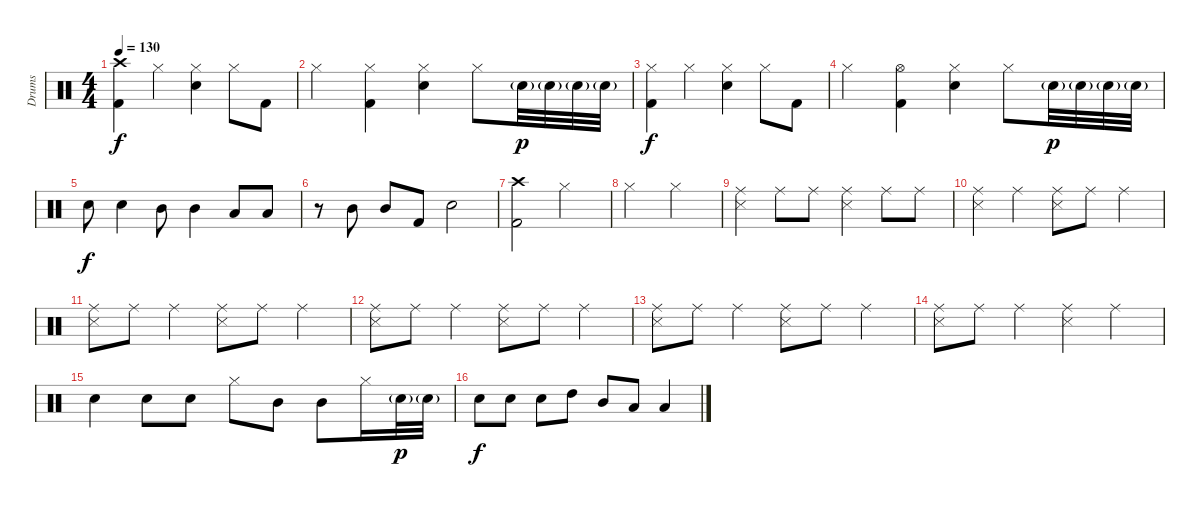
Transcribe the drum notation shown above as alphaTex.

\track ("Drums" "Drums") {instrument percussion}
\staff {score}
\articulation defaults
\ts (4 4)
\tempo 130
\clef neutral
\ks c
("Crash high (hit)" "Kick (hit) 2").4{dy f} "Hi-Hat (closed)".4 ("Hi-Hat (closed)" "Electric Snare (hit)").4 "Hi-Hat (closed)".8 "Kick (hit) 2".8 |
"Hi-Hat (closed)".4 ("Hi-Hat (closed)" "Kick (hit) 2").4 ("Hi-Hat (closed)" "Electric Snare (hit)").4 "Hi-Hat (closed)".8 "Electric Snare (hit)"{g}.32{dy p} "Electric Snare (hit)"{g}.32 "Electric Snare (hit)"{g}.32 "Electric Snare (hit)"{g}.32 |
("Hi-Hat (closed)" "Kick (hit) 2").4{dy f} "Hi-Hat (closed)".4 ("Hi-Hat (closed)" "Electric Snare (hit)").4 "Hi-Hat (closed)".8 "Kick (hit) 2".8 |
"Hi-Hat (closed)".4 ("Hi-Hat (open)" "Kick (hit) 2").4 ("Hi-Hat (closed)" "Electric Snare (hit)").4 "Hi-Hat (closed)".8 "Electric Snare (hit)"{g}.32{dy p} "Electric Snare (hit)"{g}.32 "Electric Snare (hit)"{g}.32 "Electric Snare (hit)"{g}.32 |
"Electric Snare (hit)".8{dy f} "Electric Snare (hit)".4 "Mid Tom (hit)".8 "Mid Tom (hit)".4 "Low Tom (hit)".8 "Low Tom (hit)".8 |
r.8 "Mid Tom (hit)".8 "Mid Tom (hit)".8 "Kick (hit) 2".8 "Electric Snare (hit)".2 |
("Crash high (hit)" "Kick (hit) 2").2 "Hi-Hat (closed)".2 |
"Hi-Hat (closed)".2 "Hi-Hat (closed)".2 |
("Ride (middle)" "Snare (side stick) 3").4 "Ride (middle)".8 "Ride (middle)".8 ("Ride (middle)" "Snare (side stick) 3").4 "Ride (middle)".8 "Ride (middle)".8 |
("Ride (middle)" "Snare (side stick) 3").4 "Ride (middle)".4 ("Ride (middle)" "Snare (side stick) 3").8 "Ride (middle)".8 "Ride (middle)".4 |
("Ride (middle)" "Snare (side stick) 3").8 "Ride (middle)".8 "Ride (middle)".4 ("Ride (middle)" "Snare (side stick) 3").8 "Ride (middle)".8 "Ride (middle)".4 |
("Ride (middle)" "Snare (side stick) 3").8 "Ride (middle)".8 "Ride (middle)".4 ("Ride (middle)" "Snare (side stick) 3").8 "Ride (middle)".8 "Ride (middle)".4 |
("Ride (middle)" "Snare (side stick) 3").8 "Ride (middle)".8 "Ride (middle)".4 ("Ride (middle)" "Snare (side stick) 3").8 "Ride (middle)".8 "Ride (middle)".4 |
("Ride (middle)" "Snare (side stick) 3").8 "Ride (middle)".8 "Ride (middle)".4 ("Ride (middle)" "Snare (side stick) 3").4 "Ride (middle)".4 |
"Electric Snare (hit)".4 "Electric Snare (hit)".8 "Electric Snare (hit)".8 "Hi-Hat (closed)".8 "Mid Tom (hit)".8 "Mid Tom (hit)".8 "Hi-Hat (closed)".16 "Electric Snare (hit)"{g}.32{dy p} "Electric Snare (hit)"{g}.32 |
"Electric Snare (hit)".8{dy f} "Electric Snare (hit)".8 "Electric Snare (hit)".8 "High Tom (hit)".8 "Mid Tom (hit)".8 "Low Tom (hit)".8 "Low Tom (hit)".4
